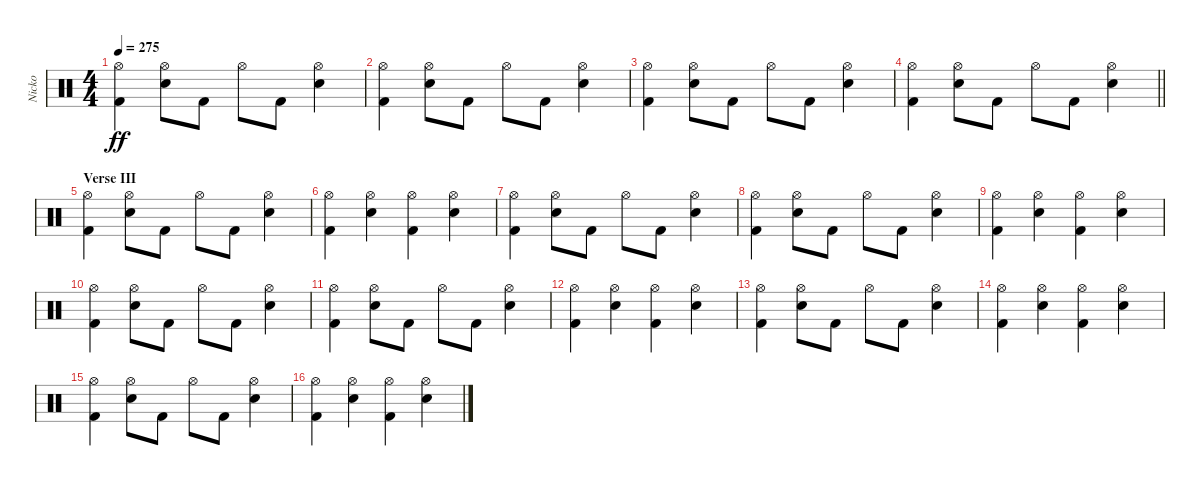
\track ("Nicko" "Nicko") {instrument percussion}
\staff {score}
\articulation defaults
\ts (4 4)
\tempo 275
\clef neutral
\ks c
("Kick (hit) 2" "Hi-Hat (open)").4{dy ff} ("Snare (hit) 2" "Hi-Hat (open)").8 "Kick (hit) 2".8 "Hi-Hat (open)".8 "Kick (hit) 2".8 ("Snare (hit) 2" "Hi-Hat (open)").4 |
("Kick (hit) 2" "Hi-Hat (open)").4 ("Snare (hit) 2" "Hi-Hat (open)").8 "Kick (hit) 2".8 "Hi-Hat (open)".8 "Kick (hit) 2".8 ("Snare (hit) 2" "Hi-Hat (open)").4 |
("Kick (hit) 2" "Hi-Hat (open)").4 ("Snare (hit) 2" "Hi-Hat (open)").8 "Kick (hit) 2".8 "Hi-Hat (open)".8 "Kick (hit) 2".8 ("Snare (hit) 2" "Hi-Hat (open)").4 |
\barLineRight lightlight
("Kick (hit) 2" "Hi-Hat (open)").4 ("Snare (hit) 2" "Hi-Hat (open)").8 "Kick (hit) 2".8 "Hi-Hat (open)".8 "Kick (hit) 2".8 ("Snare (hit) 2" "Hi-Hat (open)").4 |
\section ("" "Verse III")
("Kick (hit) 2" "Hi-Hat (open)").4 ("Snare (hit) 2" "Hi-Hat (open)").8 "Kick (hit) 2".8 "Hi-Hat (open)".8 "Kick (hit) 2".8 ("Snare (hit) 2" "Hi-Hat (open)").4 |
("Kick (hit) 2" "Hi-Hat (open)").4 ("Snare (hit) 2" "Hi-Hat (open)").4 ("Kick (hit) 2" "Hi-Hat (open)").4 ("Snare (hit) 2" "Hi-Hat (open)").4 |
("Kick (hit) 2" "Hi-Hat (open)").4 ("Snare (hit) 2" "Hi-Hat (open)").8 "Kick (hit) 2".8 "Hi-Hat (open)".8 "Kick (hit) 2".8 ("Snare (hit) 2" "Hi-Hat (open)").4 |
("Kick (hit) 2" "Hi-Hat (open)").4 ("Snare (hit) 2" "Hi-Hat (open)").8 "Kick (hit) 2".8 "Hi-Hat (open)".8 "Kick (hit) 2".8 ("Snare (hit) 2" "Hi-Hat (open)").4 |
("Kick (hit) 2" "Hi-Hat (open)").4 ("Snare (hit) 2" "Hi-Hat (open)").4 ("Kick (hit) 2" "Hi-Hat (open)").4 ("Snare (hit) 2" "Hi-Hat (open)").4 |
("Kick (hit) 2" "Hi-Hat (open)").4 ("Snare (hit) 2" "Hi-Hat (open)").8 "Kick (hit) 2".8 "Hi-Hat (open)".8 "Kick (hit) 2".8 ("Snare (hit) 2" "Hi-Hat (open)").4 |
("Kick (hit) 2" "Hi-Hat (open)").4 ("Snare (hit) 2" "Hi-Hat (open)").8 "Kick (hit) 2".8 "Hi-Hat (open)".8 "Kick (hit) 2".8 ("Snare (hit) 2" "Hi-Hat (open)").4 |
("Kick (hit) 2" "Hi-Hat (open)").4 ("Snare (hit) 2" "Hi-Hat (open)").4 ("Kick (hit) 2" "Hi-Hat (open)").4 ("Snare (hit) 2" "Hi-Hat (open)").4 |
("Kick (hit) 2" "Hi-Hat (open)").4 ("Snare (hit) 2" "Hi-Hat (open)").8 "Kick (hit) 2".8 "Hi-Hat (open)".8 "Kick (hit) 2".8 ("Snare (hit) 2" "Hi-Hat (open)").4 |
("Kick (hit) 2" "Hi-Hat (open)").4 ("Snare (hit) 2" "Hi-Hat (open)").4 ("Kick (hit) 2" "Hi-Hat (open)").4 ("Snare (hit) 2" "Hi-Hat (open)").4 |
("Kick (hit) 2" "Hi-Hat (open)").4 ("Snare (hit) 2" "Hi-Hat (open)").8 "Kick (hit) 2".8 "Hi-Hat (open)".8 "Kick (hit) 2".8 ("Snare (hit) 2" "Hi-Hat (open)").4 |
("Kick (hit) 2" "Hi-Hat (open)").4 ("Snare (hit) 2" "Hi-Hat (open)").4 ("Kick (hit) 2" "Hi-Hat (open)").4 ("Snare (hit) 2" "Hi-Hat (open)").4
